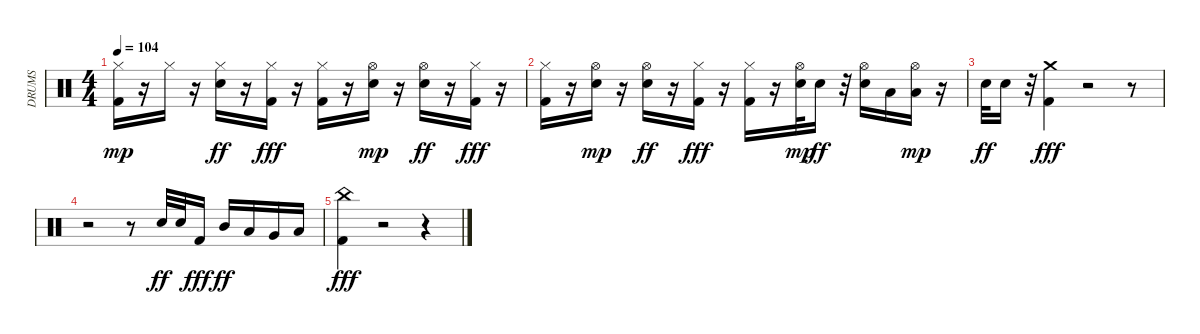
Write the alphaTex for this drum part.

\track ("DRUMS" "DRUMS") {instrument percussion}
\staff {score}
\articulation defaults
\ts (4 4)
\tempo 104
\clef neutral
\ks c
("Kick (hit) 2" "Hi-Hat (closed)").16{dy mp} r.16 "Hi-Hat (closed)".16 r.16 ("Hi-Hat (closed)" "Snare (hit) 2").16{dy ff} r.16 ("Hi-Hat (closed)" "Kick (hit) 2").16{dy fff} r.16 ("Hi-Hat (closed)" "Kick (hit) 2").16 r.16 ("Snare (hit) 2" "Hi-Hat (open)").16{dy mp} r.16 ("Hi-Hat (open)" "Snare (hit) 2").16{dy ff} r.16 ("Kick (hit) 2" "Hi-Hat (closed)").16{dy fff} r.16 |
("Hi-Hat (closed)" "Kick (hit) 2").16 r.16 ("Snare (hit) 2" "Hi-Hat (open)").16{dy mp} r.16 ("Hi-Hat (open)" "Snare (hit) 2").16{dy ff} r.16 ("Hi-Hat (closed)" "Kick (hit) 2").16{dy fff} r.16 ("Hi-Hat (closed)" "Kick (hit) 2").16 r.16 ("Snare (hit) 2" "Hi-Hat (open)").32{dy mp} "Snare (hit) 2".16{dy ff} r.32 ("Hi-Hat (open)" "Snare (hit) 2").16 "Low Tom (hit)".16 ("Low Floor Tom (hit)" "Hi-Hat (open)").16{dy mp} r.16 |
"Snare (hit) 2".32{dy ff} "Snare (hit) 2".16 r.32 ("Crash medium (hit)" "Kick (hit) 2").4{dy fff} r.2 r.8 |
r.2 r.8 "Snare (hit) 2".32{dy ff} "Snare (hit) 2".32 "Kick (hit) 2".16{dy fff} "Mid Tom (hit)".16{dy ff} "Low Tom (hit)".16 "Very Low Tom (hit)".16 "Low Floor Tom (hit)".16 |
("China (hit)" "Kick (hit) 2").4{dy fff} r.2 r.4
